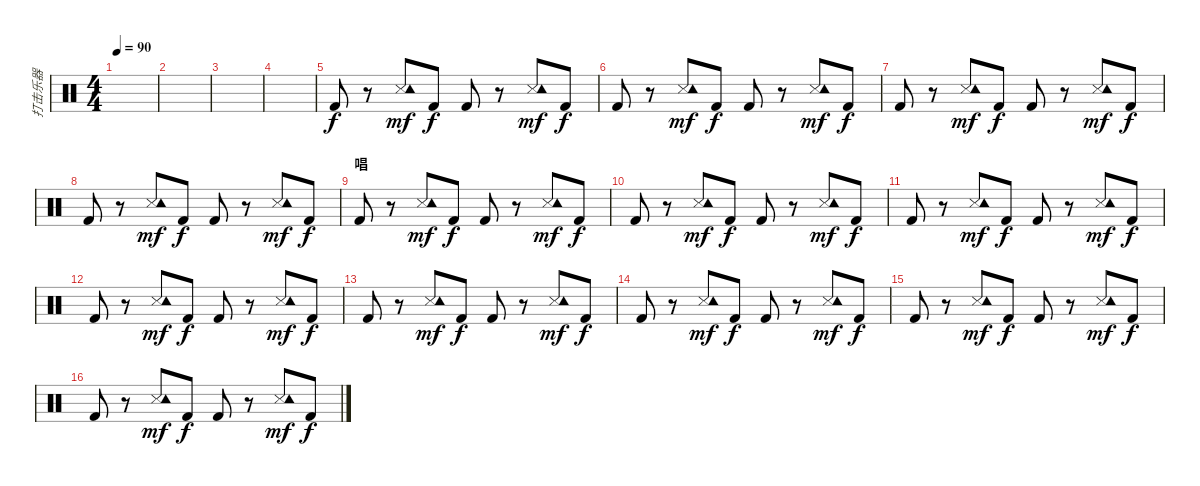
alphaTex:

\track ("打击乐器" "打击乐器") {instrument percussion}
\staff {score}
\articulation defaults
\ts (4 4)
\tempo 90
\clef neutral
\ks c
|
|
|
|
"Kick (hit) 2".8 r.8 ("Snare (side stick) 3" "Tambourine (hit)").8{dy mf} "Kick (hit) 2".8{dy f} "Kick (hit) 2".8 r.8 ("Snare (side stick) 3" "Tambourine (hit)").8{dy mf} "Kick (hit) 2".8{dy f} |
"Kick (hit) 2".8 r.8 ("Snare (side stick) 3" "Tambourine (hit)").8{dy mf} "Kick (hit) 2".8{dy f} "Kick (hit) 2".8 r.8 ("Snare (side stick) 3" "Tambourine (hit)").8{dy mf} "Kick (hit) 2".8{dy f} |
"Kick (hit) 2".8 r.8 ("Snare (side stick) 3" "Tambourine (hit)").8{dy mf} "Kick (hit) 2".8{dy f} "Kick (hit) 2".8 r.8 ("Snare (side stick) 3" "Tambourine (hit)").8{dy mf} "Kick (hit) 2".8{dy f} |
"Kick (hit) 2".8 r.8 ("Snare (side stick) 3" "Tambourine (hit)").8{dy mf} "Kick (hit) 2".8{dy f} "Kick (hit) 2".8 r.8 ("Snare (side stick) 3" "Tambourine (hit)").8{dy mf} "Kick (hit) 2".8{dy f} |
\section ("" "唱")
"Kick (hit) 2".8 r.8 ("Snare (side stick) 3" "Tambourine (hit)").8{dy mf} "Kick (hit) 2".8{dy f} "Kick (hit) 2".8 r.8 ("Snare (side stick) 3" "Tambourine (hit)").8{dy mf} "Kick (hit) 2".8{dy f} |
"Kick (hit) 2".8 r.8 ("Snare (side stick) 3" "Tambourine (hit)").8{dy mf} "Kick (hit) 2".8{dy f} "Kick (hit) 2".8 r.8 ("Snare (side stick) 3" "Tambourine (hit)").8{dy mf} "Kick (hit) 2".8{dy f} |
"Kick (hit) 2".8 r.8 ("Snare (side stick) 3" "Tambourine (hit)").8{dy mf} "Kick (hit) 2".8{dy f} "Kick (hit) 2".8 r.8 ("Snare (side stick) 3" "Tambourine (hit)").8{dy mf} "Kick (hit) 2".8{dy f} |
"Kick (hit) 2".8 r.8 ("Snare (side stick) 3" "Tambourine (hit)").8{dy mf} "Kick (hit) 2".8{dy f} "Kick (hit) 2".8 r.8 ("Snare (side stick) 3" "Tambourine (hit)").8{dy mf} "Kick (hit) 2".8{dy f} |
"Kick (hit) 2".8 r.8 ("Snare (side stick) 3" "Tambourine (hit)").8{dy mf} "Kick (hit) 2".8{dy f} "Kick (hit) 2".8 r.8 ("Snare (side stick) 3" "Tambourine (hit)").8{dy mf} "Kick (hit) 2".8{dy f} |
"Kick (hit) 2".8 r.8 ("Snare (side stick) 3" "Tambourine (hit)").8{dy mf} "Kick (hit) 2".8{dy f} "Kick (hit) 2".8 r.8 ("Snare (side stick) 3" "Tambourine (hit)").8{dy mf} "Kick (hit) 2".8{dy f} |
"Kick (hit) 2".8 r.8 ("Snare (side stick) 3" "Tambourine (hit)").8{dy mf} "Kick (hit) 2".8{dy f} "Kick (hit) 2".8 r.8 ("Snare (side stick) 3" "Tambourine (hit)").8{dy mf} "Kick (hit) 2".8{dy f} |
"Kick (hit) 2".8 r.8 ("Snare (side stick) 3" "Tambourine (hit)").8{dy mf} "Kick (hit) 2".8{dy f} "Kick (hit) 2".8 r.8 ("Snare (side stick) 3" "Tambourine (hit)").8{dy mf} "Kick (hit) 2".8{dy f}
